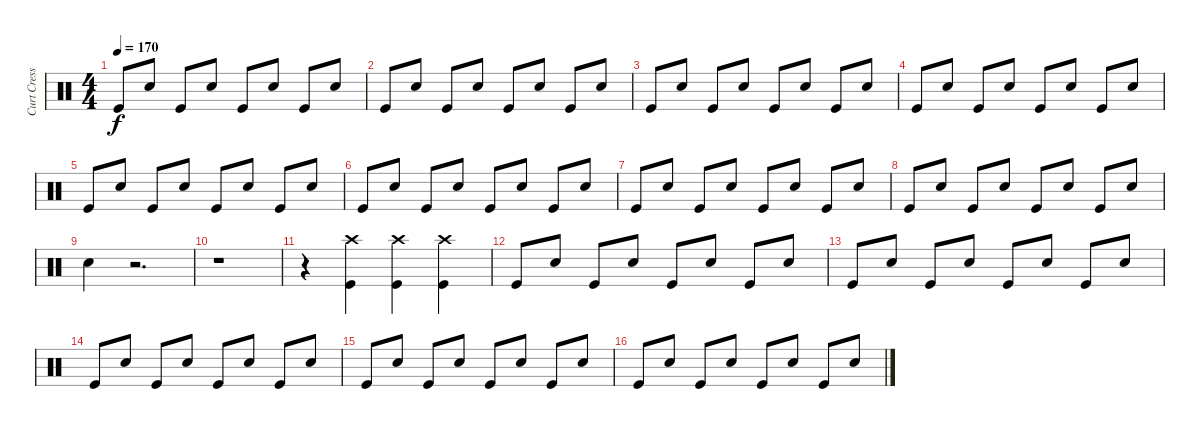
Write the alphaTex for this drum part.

\track ("Curt Cress" "Curt Cress") {instrument percussion}
\staff {score}
\articulation defaults
\ts (4 4)
\tempo 170
\clef neutral
\ks c "Kick (hit)".8{dy f} "Snare (hit) 2".8 "Kick (hit)".8 "Snare (hit) 2".8 "Kick (hit)".8 "Snare (hit) 2".8 "Kick (hit)".8 "Snare (hit) 2".8
|
"Kick (hit)".8 "Snare (hit) 2".8 "Kick (hit)".8 "Snare (hit) 2".8 "Kick (hit)".8 "Snare (hit) 2".8 "Kick (hit)".8 "Snare (hit) 2".8 |
"Kick (hit)".8 "Snare (hit) 2".8 "Kick (hit)".8 "Snare (hit) 2".8 "Kick (hit)".8 "Snare (hit) 2".8 "Kick (hit)".8 "Snare (hit) 2".8 |
"Kick (hit)".8 "Snare (hit) 2".8 "Kick (hit)".8 "Snare (hit) 2".8 "Kick (hit)".8 "Snare (hit) 2".8 "Kick (hit)".8 "Snare (hit) 2".8 |
"Kick (hit)".8 "Snare (hit) 2".8 "Kick (hit)".8 "Snare (hit) 2".8 "Kick (hit)".8 "Snare (hit) 2".8 "Kick (hit)".8 "Snare (hit) 2".8 |
"Kick (hit)".8 "Snare (hit) 2".8 "Kick (hit)".8 "Snare (hit) 2".8 "Kick (hit)".8 "Snare (hit) 2".8 "Kick (hit)".8 "Snare (hit) 2".8 |
"Kick (hit)".8 "Snare (hit) 2".8 "Kick (hit)".8 "Snare (hit) 2".8 "Kick (hit)".8 "Snare (hit) 2".8 "Kick (hit)".8 "Snare (hit) 2".8 |
"Kick (hit)".8 "Snare (hit) 2".8 "Kick (hit)".8 "Snare (hit) 2".8 "Kick (hit)".8 "Snare (hit) 2".8 "Kick (hit)".8 "Snare (hit) 2".8 |
"Electric Snare (hit)".4 r.2{d} |
r.1 |
r.4 ("Kick (hit)" "Crash high (hit)").4 ("Kick (hit)" "Crash high (hit)").4 ("Kick (hit)" "Crash high (hit)").4 |
"Kick (hit)".8 "Snare (hit) 2".8 "Kick (hit)".8 "Snare (hit) 2".8 "Kick (hit)".8 "Snare (hit) 2".8 "Kick (hit)".8 "Snare (hit) 2".8 |
"Kick (hit)".8 "Snare (hit) 2".8 "Kick (hit)".8 "Snare (hit) 2".8 "Kick (hit)".8 "Snare (hit) 2".8 "Kick (hit)".8 "Snare (hit) 2".8 |
"Kick (hit)".8 "Snare (hit) 2".8 "Kick (hit)".8 "Snare (hit) 2".8 "Kick (hit)".8 "Snare (hit) 2".8 "Kick (hit)".8 "Snare (hit) 2".8 |
"Kick (hit)".8 "Snare (hit) 2".8 "Kick (hit)".8 "Snare (hit) 2".8 "Kick (hit)".8 "Snare (hit) 2".8 "Kick (hit)".8 "Snare (hit) 2".8 |
"Kick (hit)".8 "Snare (hit) 2".8 "Kick (hit)".8 "Snare (hit) 2".8 "Kick (hit)".8 "Snare (hit) 2".8 "Kick (hit)".8 "Snare (hit) 2".8
